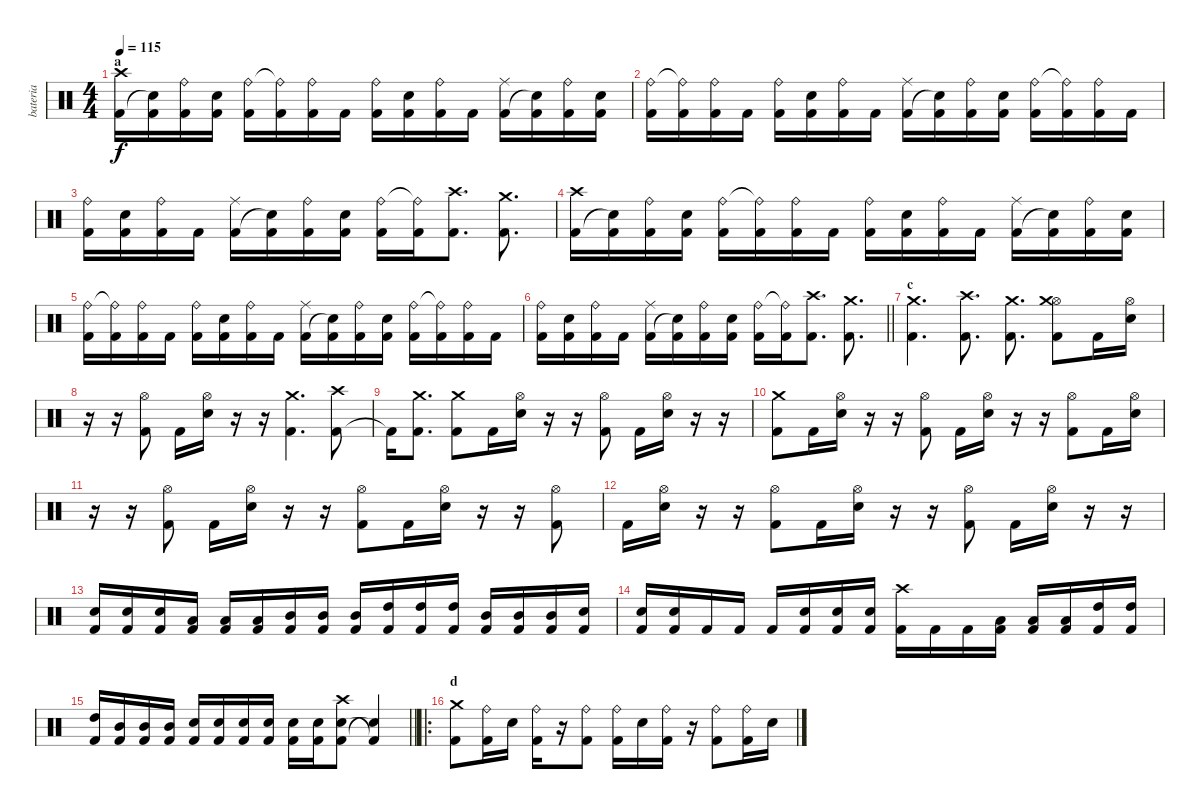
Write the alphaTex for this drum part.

\track ("bateria" "bateria") {instrument percussion}
\staff {score}
\articulation defaults
\ts (4 4)
\section ("" "a")
\tempo 115
\clef neutral
\ks c
("Crash high (hit)" "Kick (hit) 2").16{dy f} ("Kick (hit) 2" "Snare (hit)"{t}).16 ("Ride (bell)" "Kick (hit) 2").16 ("Snare (hit) 2" "Kick (hit) 2").16 ("Ride (bell)" "Kick (hit) 2").16 ("Ride (bell)"{t} "Kick (hit) 2").16 ("Kick (hit) 2" "Ride (bell)").16 "Kick (hit) 2".16 ("Ride (bell)" "Kick (hit) 2").16 ("Kick (hit) 2" "Snare (hit) 2").16 ("Kick (hit) 2" "Ride (bell)").16 "Kick (hit) 2".16 ("Ride (middle)" "Kick (hit) 2").16 ("Kick (hit) 2" "Snare (hit)"{t}).16 ("Ride (bell)" "Kick (hit) 2").16 ("Snare (hit) 2" "Kick (hit) 2").16 |
("Ride (bell)" "Kick (hit) 2").16 ("Ride (bell)"{t} "Kick (hit) 2").16 ("Kick (hit) 2" "Ride (bell)").16 "Kick (hit) 2".16 ("Ride (bell)" "Kick (hit) 2").16 ("Kick (hit) 2" "Snare (hit) 2").16 ("Kick (hit) 2" "Ride (bell)").16 "Kick (hit) 2".16 ("Ride (middle)" "Kick (hit) 2").16 ("Kick (hit) 2" "Snare (hit)"{t}).16 ("Ride (bell)" "Kick (hit) 2").16 ("Snare (hit) 2" "Kick (hit) 2").16 ("Ride (bell)" "Kick (hit) 2").16 ("Ride (bell)"{t} "Kick (hit) 2").16 ("Kick (hit) 2" "Ride (bell)").16 "Kick (hit) 2".16 |
("Ride (bell)" "Kick (hit) 2").16 ("Kick (hit) 2" "Snare (hit) 2").16 ("Kick (hit) 2" "Ride (bell)").16 "Kick (hit) 2".16 ("Ride (middle)" "Kick (hit) 2").16 ("Kick (hit) 2" "Snare (hit)"{t}).16 ("Ride (bell)" "Kick (hit) 2").16 ("Snare (hit) 2" "Kick (hit) 2").16 ("Ride (bell)" "Kick (hit) 2").16 ("Ride (bell)"{t} "Kick (hit) 2").16 ("Kick (hit) 2" "Crash high (hit)").8{d} ("Crash medium (hit)" "Kick (hit) 2").8{d} |
("Crash high (hit)" "Kick (hit) 2").16 ("Kick (hit) 2" "Snare (hit)"{t}).16 ("Ride (bell)" "Kick (hit) 2").16 ("Snare (hit) 2" "Kick (hit) 2").16 ("Ride (bell)" "Kick (hit) 2").16 ("Ride (bell)"{t} "Kick (hit) 2").16 ("Kick (hit) 2" "Ride (bell)").16 "Kick (hit) 2".16 ("Ride (bell)" "Kick (hit) 2").16 ("Kick (hit) 2" "Snare (hit) 2").16 ("Kick (hit) 2" "Ride (bell)").16 "Kick (hit) 2".16 ("Ride (middle)" "Kick (hit) 2").16 ("Kick (hit) 2" "Snare (hit)"{t}).16 ("Ride (bell)" "Kick (hit) 2").16 ("Snare (hit) 2" "Kick (hit) 2").16 |
("Ride (bell)" "Kick (hit) 2").16 ("Ride (bell)"{t} "Kick (hit) 2").16 ("Kick (hit) 2" "Ride (bell)").16 "Kick (hit) 2".16 ("Ride (bell)" "Kick (hit) 2").16 ("Kick (hit) 2" "Snare (hit) 2").16 ("Kick (hit) 2" "Ride (bell)").16 "Kick (hit) 2".16 ("Ride (middle)" "Kick (hit) 2").16 ("Kick (hit) 2" "Snare (hit)"{t}).16 ("Ride (bell)" "Kick (hit) 2").16 ("Snare (hit) 2" "Kick (hit) 2").16 ("Ride (bell)" "Kick (hit) 2").16 ("Ride (bell)"{t} "Kick (hit) 2").16 ("Kick (hit) 2" "Ride (bell)").16 "Kick (hit) 2".16 |
\barLineRight lightlight
("Ride (bell)" "Kick (hit) 2").16 ("Kick (hit) 2" "Snare (hit) 2").16 ("Kick (hit) 2" "Ride (bell)").16 "Kick (hit) 2".16 ("Ride (middle)" "Kick (hit) 2").16 ("Kick (hit) 2" "Snare (hit)"{t}).16 ("Ride (bell)" "Kick (hit) 2").16 ("Snare (hit) 2" "Kick (hit) 2").16 ("Ride (bell)" "Kick (hit) 2").16 ("Ride (bell)"{t} "Kick (hit) 2").16 ("Kick (hit) 2" "Crash high (hit)").8{d} ("Crash medium (hit)" "Kick (hit) 2").8{d} |
\section ("" "c")
("Kick (hit) 2" "Crash medium (hit)").4{d} ("Kick (hit) 2" "Crash high (hit)").8{d} ("Kick (hit) 2" "Crash medium (hit)").8{d} ("Kick (hit) 2" "Hi-Hat (open)" "Crash medium (hit)").8 "Kick (hit) 2".16 ("Hi-Hat (open)" "Electric Snare (hit)").16 |
r.16 r.16 ("Kick (hit) 2" "Hi-Hat (open)").8 "Kick (hit) 2".16 ("Hi-Hat (open)" "Electric Snare (hit)").16 r.16 r.16 ("Kick (hit) 2" "Crash medium (hit)").4{d} ("Kick (hit) 2" "Crash high (hit)").8 |
"Kick (hit) 2"{t}.16 ("Kick (hit) 2" "Crash medium (hit)").8{d} ("Kick (hit) 2" "Crash medium (hit)").8 "Kick (hit) 2".16 ("Electric Snare (hit)" "Hi-Hat (open)").16 r.16 r.16 ("Kick (hit) 2" "Hi-Hat (open)").8 "Kick (hit) 2".16 ("Hi-Hat (open)" "Electric Snare (hit)").16 r.16 r.16 |
("Kick (hit) 2" "Crash medium (hit)").8 "Kick (hit) 2".16 ("Electric Snare (hit)" "Hi-Hat (open)").16 r.16 r.16 ("Kick (hit) 2" "Hi-Hat (open)").8 "Kick (hit) 2".16 ("Hi-Hat (open)" "Electric Snare (hit)").16 r.16 r.16 ("Kick (hit) 2" "Hi-Hat (open)").8 "Kick (hit) 2".16 ("Hi-Hat (open)" "Electric Snare (hit)").16 |
r.16 r.16 ("Kick (hit) 2" "Hi-Hat (open)").8 "Kick (hit) 2".16 ("Hi-Hat (open)" "Electric Snare (hit)").16 r.16 r.16 ("Kick (hit) 2" "Hi-Hat (open)").8 "Kick (hit) 2".16 ("Hi-Hat (open)" "Electric Snare (hit)").16 r.16 r.16 ("Kick (hit) 2" "Hi-Hat (open)").8 |
"Kick (hit) 2".16 ("Electric Snare (hit)" "Hi-Hat (open)").16 r.16 r.16 ("Kick (hit) 2" "Hi-Hat (open)").8 "Kick (hit) 2".16 ("Hi-Hat (open)" "Electric Snare (hit)").16 r.16 r.16 ("Kick (hit) 2" "Hi-Hat (open)").8 "Kick (hit) 2".16 ("Hi-Hat (open)" "Electric Snare (hit)").16 r.16 r.16 |
("Kick (hit) 2" "Electric Snare (hit)").16 ("Kick (hit) 2" "Electric Snare (hit)").16 ("Kick (hit) 2" "Electric Snare (hit)").16 ("Kick (hit) 2" "Low Tom (hit)").16 ("Kick (hit) 2" "Low Tom (hit)").16 ("Kick (hit) 2" "Low Tom (hit)").16 ("Kick (hit) 2" "Mid Tom (hit)").16 ("Kick (hit) 2" "Mid Tom (hit)").16 ("Kick (hit) 2" "Mid Tom (hit)").16 ("Kick (hit) 2" "High Tom (hit)").16 ("Kick (hit) 2" "High Tom (hit)").16 ("Kick (hit) 2" "High Tom (hit)").16 ("Kick (hit) 2" "Mid Tom (hit)").16 ("Kick (hit) 2" "Mid Tom (hit)").16 ("Kick (hit) 2" "Mid Tom (hit)").16 ("Kick (hit) 2" "Electric Snare (hit)").16 |
("Kick (hit) 2" "Electric Snare (hit)").16 ("Kick (hit) 2" "Electric Snare (hit)").16 "Kick (hit) 2".16 "Kick (hit) 2".16 "Kick (hit) 2".16 ("Kick (hit) 2" "Electric Snare (hit)").16 ("Kick (hit) 2" "Electric Snare (hit)").16 ("Kick (hit) 2" "Electric Snare (hit)").16 ("Kick (hit) 2" "Crash high (hit)").16 "Kick (hit) 2".16 "Kick (hit) 2".16 ("Kick (hit) 2" "Low Tom (hit)").16 ("Kick (hit) 2" "Low Tom (hit)").16 ("Kick (hit) 2" "Low Tom (hit)").16 ("Kick (hit) 2" "High Tom (hit)").16 ("Kick (hit) 2" "High Tom (hit)").16 |
\barLineRight lightlight
("Kick (hit) 2" "High Tom (hit)").16 ("Kick (hit) 2" "Mid Tom (hit)").16 ("Kick (hit) 2" "Mid Tom (hit)").16 ("Kick (hit) 2" "Mid Tom (hit)").16 ("Kick (hit) 2" "Electric Snare (hit)").16 ("Kick (hit) 2" "Electric Snare (hit)").16 ("Kick (hit) 2" "Electric Snare (hit)").16 ("Kick (hit) 2" "Electric Snare (hit)").16 ("Kick (hit) 2" "Electric Snare (hit)").16 ("Kick (hit) 2" "Electric Snare (hit)").16 ("Kick (hit) 2" "Electric Snare (hit)" "Crash high (hit)").8 ("Electric Snare (hit)"{t} "Kick (hit) 2"{t}).4 |
\ro
\section ("" "d")
("Kick (hit) 2" "Crash medium (hit)").8 ("Kick (hit) 2" "Ride (bell)").16 "Electric Snare (hit)".16 ("Kick (hit) 2" "Ride (bell)").16 r.16 ("Kick (hit) 2" "Ride (bell)").8 ("Kick (hit) 2" "Ride (bell)").16 "Electric Snare (hit)".16 ("Kick (hit) 2" "Ride (bell)").16 r.16 ("Kick (hit) 2" "Ride (bell)").8 ("Kick (hit) 2" "Ride (bell)").16 "Electric Snare (hit)".16
